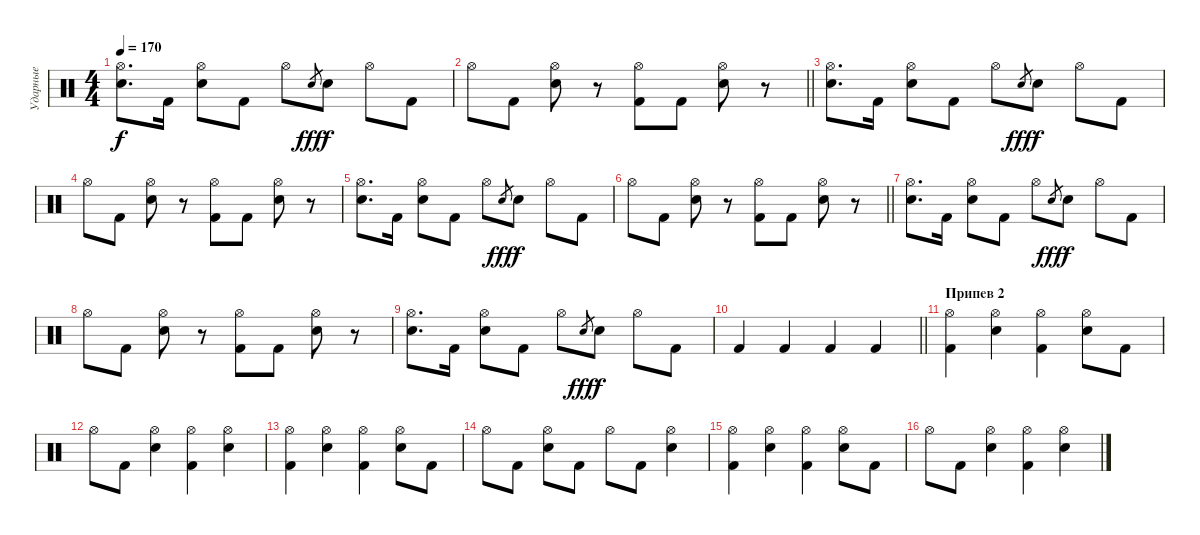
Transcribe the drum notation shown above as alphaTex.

\track ("Ударные" "Ударные") {instrument percussion}
\staff {score}
\articulation defaults
\ts (4 4)
\tempo 170
\clef neutral
\ks c
("Electric Snare (hit)" "Hi-Hat (open)").8{d dy f} "Kick (hit) 2".16 ("Electric Snare (hit)" "Hi-Hat (open)").8 "Kick (hit) 2".8 "Hi-Hat (open)".8 "Electric Snare (hit)"{x}.8{gr dy fff} "Electric Snare (hit)".8{dy f} "Hi-Hat (open)".8 "Kick (hit) 2".8 |
\barLineRight lightlight "Hi-Hat (open)".8 "Kick (hit) 2".8
("Electric Snare (hit)" "Hi-Hat (open)").8 r.8 ("Kick (hit) 2" "Hi-Hat (open)").8 "Kick (hit) 2".8 ("Electric Snare (hit)" "Hi-Hat (open)").8 r.8 |
("Electric Snare (hit)" "Hi-Hat (open)").8{d} "Kick (hit) 2".16 ("Electric Snare (hit)" "Hi-Hat (open)").8 "Kick (hit) 2".8 "Hi-Hat (open)".8 "Electric Snare (hit)"{x}.8{gr dy fff} "Electric Snare (hit)".8{dy f} "Hi-Hat (open)".8 "Kick (hit) 2".8 |
"Hi-Hat (open)".8 "Kick (hit) 2".8 ("Electric Snare (hit)" "Hi-Hat (open)").8 r.8 ("Kick (hit) 2" "Hi-Hat (open)").8 "Kick (hit) 2".8 ("Electric Snare (hit)" "Hi-Hat (open)").8 r.8 |
("Electric Snare (hit)" "Hi-Hat (open)").8{d} "Kick (hit) 2".16 ("Electric Snare (hit)" "Hi-Hat (open)").8 "Kick (hit) 2".8 "Hi-Hat (open)".8 "Electric Snare (hit)"{x}.8{gr dy fff} "Electric Snare (hit)".8{dy f} "Hi-Hat (open)".8 "Kick (hit) 2".8 |
\barLineRight lightlight "Hi-Hat (open)".8 "Kick (hit) 2".8
("Electric Snare (hit)" "Hi-Hat (open)").8 r.8 ("Kick (hit) 2" "Hi-Hat (open)").8 "Kick (hit) 2".8 ("Electric Snare (hit)" "Hi-Hat (open)").8 r.8 |
("Electric Snare (hit)" "Hi-Hat (open)").8{d} "Kick (hit) 2".16 ("Electric Snare (hit)" "Hi-Hat (open)").8 "Kick (hit) 2".8 "Hi-Hat (open)".8 "Electric Snare (hit)"{x}.8{gr dy fff} "Electric Snare (hit)".8{dy f} "Hi-Hat (open)".8 "Kick (hit) 2".8 |
"Hi-Hat (open)".8 "Kick (hit) 2".8 ("Electric Snare (hit)" "Hi-Hat (open)").8 r.8 ("Kick (hit) 2" "Hi-Hat (open)").8 "Kick (hit) 2".8 ("Electric Snare (hit)" "Hi-Hat (open)").8 r.8 |
("Electric Snare (hit)" "Hi-Hat (open)").8{d} "Kick (hit) 2".16 ("Electric Snare (hit)" "Hi-Hat (open)").8 "Kick (hit) 2".8 "Hi-Hat (open)".8 "Electric Snare (hit)"{x}.8{gr dy fff} "Electric Snare (hit)".8{dy f} "Hi-Hat (open)".8 "Kick (hit) 2".8 |
\barLineRight lightlight "Kick (hit) 2".4 "Kick (hit) 2".4 "Kick (hit) 2".4 "Kick (hit) 2".4
|
\section ("" "Припев 2")
("Hi-Hat (open)" "Kick (hit) 2").4 ("Hi-Hat (open)" "Electric Snare (hit)").4 ("Hi-Hat (open)" "Kick (hit) 2").4 ("Hi-Hat (open)" "Electric Snare (hit)").8 "Kick (hit) 2".8 |
"Hi-Hat (open)".8 "Kick (hit) 2".8 ("Hi-Hat (open)" "Electric Snare (hit)").4 ("Hi-Hat (open)" "Kick (hit) 2").4 ("Hi-Hat (open)" "Electric Snare (hit)").4 |
("Hi-Hat (open)" "Kick (hit) 2").4 ("Hi-Hat (open)" "Electric Snare (hit)").4 ("Hi-Hat (open)" "Kick (hit) 2").4 ("Hi-Hat (open)" "Electric Snare (hit)").8 "Kick (hit) 2".8 |
"Hi-Hat (open)".8 "Kick (hit) 2".8 ("Hi-Hat (open)" "Electric Snare (hit)").8 "Kick (hit) 2".8 "Hi-Hat (open)".8 "Kick (hit) 2".8 ("Hi-Hat (open)" "Electric Snare (hit)").4 |
("Hi-Hat (open)" "Kick (hit) 2").4 ("Hi-Hat (open)" "Electric Snare (hit)").4 ("Hi-Hat (open)" "Kick (hit) 2").4 ("Hi-Hat (open)" "Electric Snare (hit)").8 "Kick (hit) 2".8 |
"Hi-Hat (open)".8 "Kick (hit) 2".8 ("Hi-Hat (open)" "Electric Snare (hit)").4 ("Hi-Hat (open)" "Kick (hit) 2").4 ("Hi-Hat (open)" "Electric Snare (hit)").4
